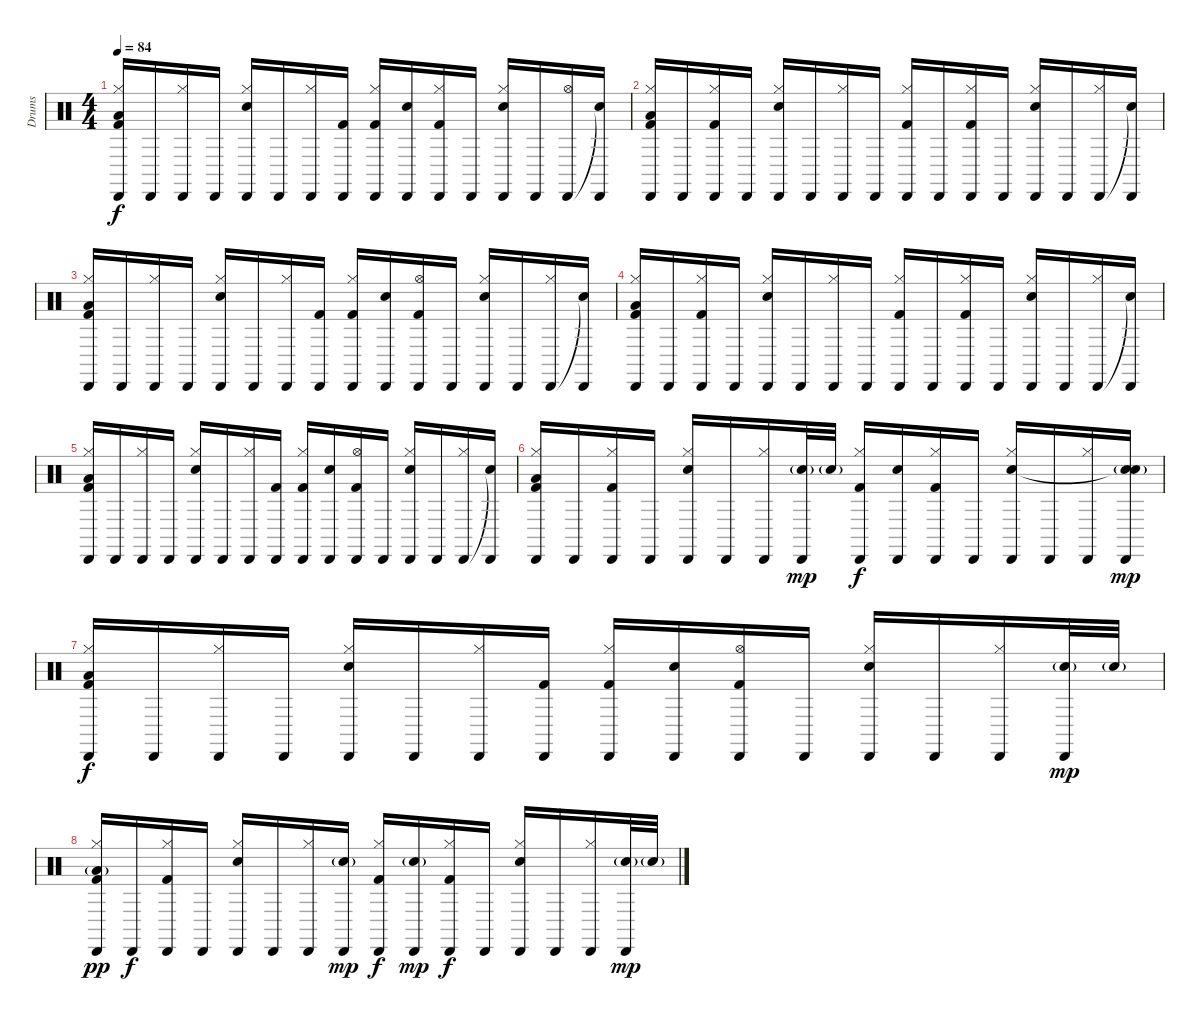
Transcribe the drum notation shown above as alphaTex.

\track ("Drums" "Drums") {instrument percussion}
\staff {score}
\articulation defaults
\ts (4 4)
\tempo 84
\clef neutral
\ks c
("Hi-Hat (closed)" "Cabasa (hit)" "Low Floor Tom (hit)" "Kick (hit) 2").16{dy f} "Cabasa (hit)".16 ("Hi-Hat (closed)" "Cabasa (hit)").16 "Cabasa (hit)".16 ("Hi-Hat (closed)" "Cabasa (hit)" "Electric Snare (hit)").16 "Cabasa (hit)".16 ("Hi-Hat (closed)" "Cabasa (hit)").16 ("Cabasa (hit)" "Kick (hit) 2").16 ("Hi-Hat (closed)" "Cabasa (hit)" "Kick (hit) 2").16 ("Cabasa (hit)" "Electric Snare (hit)").16 ("Hi-Hat (closed)" "Cabasa (hit)" "Kick (hit) 2").16 "Cabasa (hit)".16 ("Hi-Hat (closed)" "Cabasa (hit)" "Electric Snare (hit)").16 "Cabasa (hit)".16 ("Hi-Hat (open)" "Cabasa (hit)").16 ("Cabasa (hit)" "Snare (hit)"{t}).16 |
("Hi-Hat (closed)" "Cabasa (hit)" "Low Floor Tom (hit)" "Kick (hit) 2").16 "Cabasa (hit)".16 ("Hi-Hat (closed)" "Cabasa (hit)" "Kick (hit) 2").16 "Cabasa (hit)".16 ("Hi-Hat (closed)" "Cabasa (hit)" "Electric Snare (hit)").16 "Cabasa (hit)".16 ("Hi-Hat (closed)" "Cabasa (hit)").16 "Cabasa (hit)".16 ("Hi-Hat (closed)" "Cabasa (hit)" "Kick (hit) 2").16 "Cabasa (hit)".16 ("Hi-Hat (closed)" "Cabasa (hit)" "Kick (hit) 2").16 "Cabasa (hit)".16 ("Hi-Hat (closed)" "Cabasa (hit)" "Electric Snare (hit)").16 "Cabasa (hit)".16 ("Hi-Hat (closed)" "Cabasa (hit)").16 ("Cabasa (hit)" "Snare (hit)"{t}).16 |
("Hi-Hat (closed)" "Cabasa (hit)" "Low Floor Tom (hit)" "Kick (hit) 2").16 "Cabasa (hit)".16 ("Hi-Hat (closed)" "Cabasa (hit)").16 "Cabasa (hit)".16 ("Hi-Hat (closed)" "Cabasa (hit)" "Electric Snare (hit)").16 "Cabasa (hit)".16 ("Hi-Hat (closed)" "Cabasa (hit)").16 ("Cabasa (hit)" "Kick (hit) 2").16 ("Hi-Hat (closed)" "Cabasa (hit)" "Kick (hit) 2").16 ("Cabasa (hit)" "Electric Snare (hit)").16 ("Hi-Hat (open)" "Cabasa (hit)" "Kick (hit) 2").16 "Cabasa (hit)".16 ("Hi-Hat (closed)" "Cabasa (hit)" "Electric Snare (hit)").16 "Cabasa (hit)".16 ("Hi-Hat (closed)" "Cabasa (hit)").16 ("Cabasa (hit)" "Snare (hit)"{t}).16 |
("Hi-Hat (closed)" "Cabasa (hit)" "Low Floor Tom (hit)" "Kick (hit) 2").16 "Cabasa (hit)".16 ("Hi-Hat (closed)" "Cabasa (hit)" "Kick (hit) 2").16 "Cabasa (hit)".16 ("Hi-Hat (closed)" "Cabasa (hit)" "Electric Snare (hit)").16 "Cabasa (hit)".16 ("Hi-Hat (closed)" "Cabasa (hit)").16 "Cabasa (hit)".16 ("Hi-Hat (closed)" "Cabasa (hit)" "Kick (hit) 2").16 "Cabasa (hit)".16 ("Hi-Hat (closed)" "Cabasa (hit)" "Kick (hit) 2").16 "Cabasa (hit)".16 ("Hi-Hat (closed)" "Cabasa (hit)" "Electric Snare (hit)").16 "Cabasa (hit)".16 ("Hi-Hat (closed)" "Cabasa (hit)").16 ("Cabasa (hit)" "Snare (hit)"{t}).16 |
("Hi-Hat (closed)" "Cabasa (hit)" "Low Floor Tom (hit)" "Kick (hit) 2").16 "Cabasa (hit)".16 ("Hi-Hat (closed)" "Cabasa (hit)").16 "Cabasa (hit)".16 ("Hi-Hat (closed)" "Cabasa (hit)" "Electric Snare (hit)").16 "Cabasa (hit)".16 ("Hi-Hat (closed)" "Cabasa (hit)").16 ("Cabasa (hit)" "Kick (hit) 2").16 ("Hi-Hat (closed)" "Cabasa (hit)" "Kick (hit) 2").16 ("Cabasa (hit)" "Electric Snare (hit)").16 ("Hi-Hat (open)" "Cabasa (hit)" "Kick (hit) 2").16 "Cabasa (hit)".16 ("Hi-Hat (closed)" "Cabasa (hit)" "Electric Snare (hit)").16 "Cabasa (hit)".16 ("Hi-Hat (closed)" "Cabasa (hit)").16 ("Cabasa (hit)" "Snare (hit)"{t}).16 |
("Hi-Hat (closed)" "Cabasa (hit)" "Low Floor Tom (hit)" "Kick (hit) 2").16 "Cabasa (hit)".16 ("Hi-Hat (closed)" "Cabasa (hit)" "Kick (hit) 2").16 "Cabasa (hit)".16 ("Hi-Hat (closed)" "Cabasa (hit)" "Electric Snare (hit)").16 "Cabasa (hit)".16 ("Hi-Hat (closed)" "Cabasa (hit)").16 ("Cabasa (hit)" "Electric Snare (hit)"{g}).32{dy mp} "Electric Snare (hit)"{g}.32 ("Hi-Hat (closed)" "Cabasa (hit)" "Kick (hit) 2").16{dy f} ("Cabasa (hit)" "Electric Snare (hit)").16 ("Hi-Hat (closed)" "Cabasa (hit)" "Kick (hit) 2").16 "Cabasa (hit)".16 ("Hi-Hat (closed)" "Cabasa (hit)" "Electric Snare (hit)").16 "Cabasa (hit)".16 ("Hi-Hat (closed)" "Cabasa (hit)").16 ("Cabasa (hit)" "Electric Snare (hit)"{g} "Snare (hit)"{t}).16{dy mp} |
("Hi-Hat (closed)" "Cabasa (hit)" "Low Floor Tom (hit)" "Kick (hit) 2").16{dy f} "Cabasa (hit)".16 ("Hi-Hat (closed)" "Cabasa (hit)").16 "Cabasa (hit)".16 ("Hi-Hat (closed)" "Cabasa (hit)" "Electric Snare (hit)").16 "Cabasa (hit)".16 ("Hi-Hat (closed)" "Cabasa (hit)").16 ("Cabasa (hit)" "Kick (hit) 2").16 ("Hi-Hat (closed)" "Cabasa (hit)" "Kick (hit) 2").16 ("Cabasa (hit)" "Electric Snare (hit)").16 ("Hi-Hat (open)" "Cabasa (hit)" "Kick (hit) 2").16 "Cabasa (hit)".16 ("Hi-Hat (closed)" "Cabasa (hit)" "Electric Snare (hit)").16 "Cabasa (hit)".16 ("Hi-Hat (closed)" "Cabasa (hit)").16 ("Cabasa (hit)" "Electric Snare (hit)"{g}).32{dy mp} "Electric Snare (hit)"{g}.32 |
("Hi-Hat (closed)" "Cabasa (hit)" "Low Floor Tom (hit)"{g} "Kick (hit) 2").16{dy pp} "Cabasa (hit)".16{dy f} ("Hi-Hat (closed)" "Cabasa (hit)" "Kick (hit) 2").16 "Cabasa (hit)".16 ("Hi-Hat (closed)" "Cabasa (hit)" "Electric Snare (hit)").16 "Cabasa (hit)".16 ("Hi-Hat (closed)" "Cabasa (hit)").16 ("Cabasa (hit)" "Electric Snare (hit)"{g}).16{dy mp} ("Hi-Hat (closed)" "Cabasa (hit)" "Kick (hit) 2").16{dy f} ("Cabasa (hit)" "Electric Snare (hit)"{g}).16{dy mp} ("Hi-Hat (closed)" "Cabasa (hit)" "Kick (hit) 2").16{dy f} "Cabasa (hit)".16 ("Hi-Hat (closed)" "Cabasa (hit)" "Electric Snare (hit)").16 "Cabasa (hit)".16 ("Hi-Hat (closed)" "Cabasa (hit)").16 ("Cabasa (hit)" "Electric Snare (hit)"{g}).32{dy mp} "Electric Snare (hit)"{g}.32
